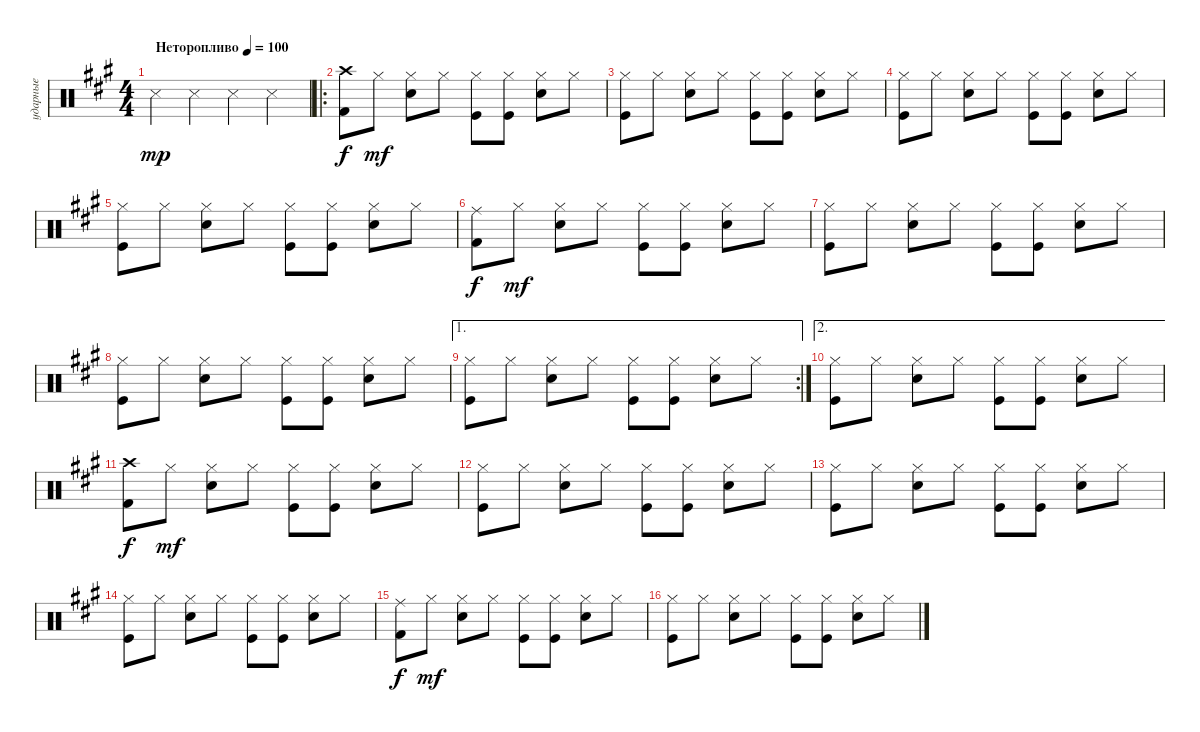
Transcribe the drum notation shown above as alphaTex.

\track ("ударные" "ударные") {instrument percussion}
\staff {score}
\articulation defaults
\ts (4 4)
\tempo (100 "Неторопливо")
\clef neutral
\ks f#minor "Snare (side stick) 3".4{dy mp} "Snare (side stick) 3".4 "Snare (side stick) 3".4 "Snare (side stick) 3".4
|
\ro
("Crash high (hit)" "Kick (hit) 2").8{dy f} "Hi-Hat (closed)".8{dy mf} ("Hi-Hat (closed)" "Electric Snare (hit)").8 "Hi-Hat (closed)".8 ("Hi-Hat (closed)" "Kick (hit)").8 ("Hi-Hat (closed)" "Kick (hit)").8 ("Hi-Hat (closed)" "Electric Snare (hit)").8 "Hi-Hat (closed)".8 |
("Kick (hit)" "Hi-Hat (closed)").8 "Hi-Hat (closed)".8 ("Hi-Hat (closed)" "Electric Snare (hit)").8 "Hi-Hat (closed)".8 ("Hi-Hat (closed)" "Kick (hit)").8 ("Hi-Hat (closed)" "Kick (hit)").8 ("Hi-Hat (closed)" "Electric Snare (hit)").8 "Hi-Hat (closed)".8 |
("Kick (hit)" "Hi-Hat (closed)").8 "Hi-Hat (closed)".8 ("Hi-Hat (closed)" "Electric Snare (hit)").8 "Hi-Hat (closed)".8 ("Hi-Hat (closed)" "Kick (hit)").8 ("Hi-Hat (closed)" "Kick (hit)").8 ("Hi-Hat (closed)" "Electric Snare (hit)").8 "Hi-Hat (closed)".8 |
("Kick (hit)" "Hi-Hat (closed)").8 "Hi-Hat (closed)".8 ("Hi-Hat (closed)" "Electric Snare (hit)").8 "Hi-Hat (closed)".8 ("Hi-Hat (closed)" "Kick (hit)").8 ("Hi-Hat (closed)" "Kick (hit)").8 ("Hi-Hat (closed)" "Electric Snare (hit)").8 "Hi-Hat (closed)".8 |
("Ride (middle)" "Kick (hit) 2").8{dy f} "Hi-Hat (closed)".8{dy mf} ("Hi-Hat (closed)" "Electric Snare (hit)").8 "Hi-Hat (closed)".8 ("Hi-Hat (closed)" "Kick (hit)").8 ("Hi-Hat (closed)" "Kick (hit)").8 ("Hi-Hat (closed)" "Electric Snare (hit)").8 "Hi-Hat (closed)".8 |
("Kick (hit)" "Hi-Hat (closed)").8 "Hi-Hat (closed)".8 ("Hi-Hat (closed)" "Electric Snare (hit)").8 "Hi-Hat (closed)".8 ("Hi-Hat (closed)" "Kick (hit)").8 ("Hi-Hat (closed)" "Kick (hit)").8 ("Hi-Hat (closed)" "Electric Snare (hit)").8 "Hi-Hat (closed)".8 |
("Kick (hit)" "Hi-Hat (closed)").8 "Hi-Hat (closed)".8 ("Hi-Hat (closed)" "Electric Snare (hit)").8 "Hi-Hat (closed)".8 ("Hi-Hat (closed)" "Kick (hit)").8 ("Hi-Hat (closed)" "Kick (hit)").8 ("Hi-Hat (closed)" "Electric Snare (hit)").8 "Hi-Hat (closed)".8 |
\ae 1
\rc 2
("Kick (hit)" "Hi-Hat (closed)").8 "Hi-Hat (closed)".8 ("Hi-Hat (closed)" "Electric Snare (hit)").8 "Hi-Hat (closed)".8 ("Hi-Hat (closed)" "Kick (hit)").8 ("Hi-Hat (closed)" "Kick (hit)").8 ("Hi-Hat (closed)" "Electric Snare (hit)").8 "Hi-Hat (closed)".8 |
\ae 2
("Kick (hit)" "Hi-Hat (closed)").8 "Hi-Hat (closed)".8 ("Hi-Hat (closed)" "Electric Snare (hit)").8 "Hi-Hat (closed)".8 ("Hi-Hat (closed)" "Kick (hit)").8 ("Hi-Hat (closed)" "Kick (hit)").8 ("Hi-Hat (closed)" "Electric Snare (hit)").8 "Hi-Hat (closed)".8 |
("Crash high (hit)" "Kick (hit) 2").8{dy f} "Hi-Hat (closed)".8{dy mf} ("Hi-Hat (closed)" "Electric Snare (hit)").8 "Hi-Hat (closed)".8 ("Hi-Hat (closed)" "Kick (hit)").8 ("Hi-Hat (closed)" "Kick (hit)").8 ("Hi-Hat (closed)" "Electric Snare (hit)").8 "Hi-Hat (closed)".8 |
("Kick (hit)" "Hi-Hat (closed)").8 "Hi-Hat (closed)".8 ("Hi-Hat (closed)" "Electric Snare (hit)").8 "Hi-Hat (closed)".8 ("Hi-Hat (closed)" "Kick (hit)").8 ("Hi-Hat (closed)" "Kick (hit)").8 ("Hi-Hat (closed)" "Electric Snare (hit)").8 "Hi-Hat (closed)".8 |
("Kick (hit)" "Hi-Hat (closed)").8 "Hi-Hat (closed)".8 ("Hi-Hat (closed)" "Electric Snare (hit)").8 "Hi-Hat (closed)".8 ("Hi-Hat (closed)" "Kick (hit)").8 ("Hi-Hat (closed)" "Kick (hit)").8 ("Hi-Hat (closed)" "Electric Snare (hit)").8 "Hi-Hat (closed)".8 |
("Kick (hit)" "Hi-Hat (closed)").8 "Hi-Hat (closed)".8 ("Hi-Hat (closed)" "Electric Snare (hit)").8 "Hi-Hat (closed)".8 ("Hi-Hat (closed)" "Kick (hit)").8 ("Hi-Hat (closed)" "Kick (hit)").8 ("Hi-Hat (closed)" "Electric Snare (hit)").8 "Hi-Hat (closed)".8 |
("Ride (middle)" "Kick (hit) 2").8{dy f} "Hi-Hat (closed)".8{dy mf} ("Hi-Hat (closed)" "Electric Snare (hit)").8 "Hi-Hat (closed)".8 ("Hi-Hat (closed)" "Kick (hit)").8 ("Hi-Hat (closed)" "Kick (hit)").8 ("Hi-Hat (closed)" "Electric Snare (hit)").8 "Hi-Hat (closed)".8 |
("Kick (hit)" "Hi-Hat (closed)").8 "Hi-Hat (closed)".8 ("Hi-Hat (closed)" "Electric Snare (hit)").8 "Hi-Hat (closed)".8 ("Hi-Hat (closed)" "Kick (hit)").8 ("Hi-Hat (closed)" "Kick (hit)").8 ("Hi-Hat (closed)" "Electric Snare (hit)").8 "Hi-Hat (closed)".8
